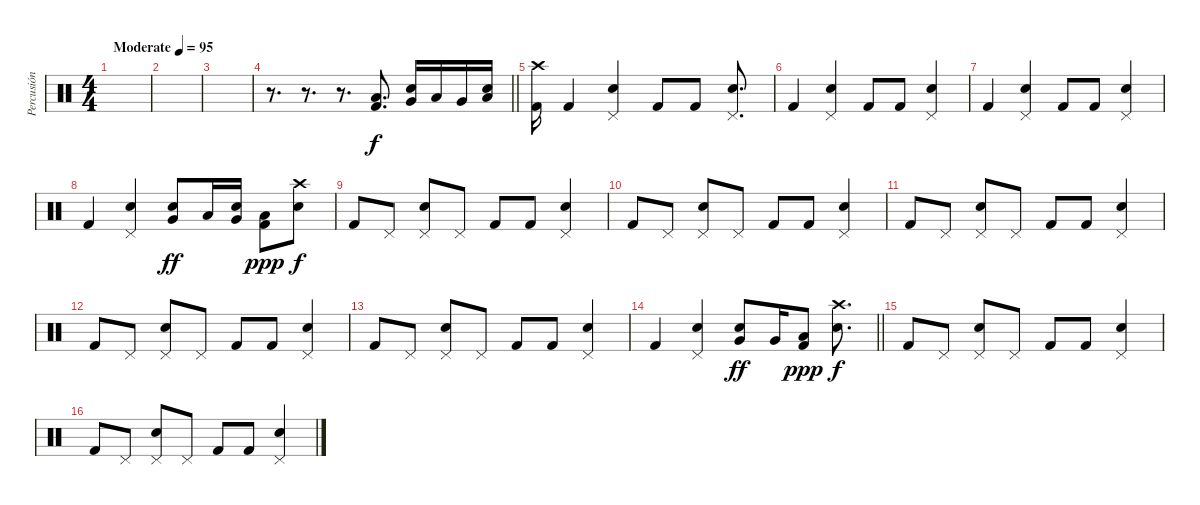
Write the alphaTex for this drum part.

\track ("Percusión" "Percusión") {instrument percussion}
\staff {score}
\articulation defaults
\ts (4 4)
\tempo (95 "Moderate")
\clef neutral
\ks c
|
|
|
\barLineRight lightlight
r.8{d} r.8{d} r.8{d} ("Low Floor Tom (hit)" "Kick (hit) 2").8{d} ("Very Low Tom (hit)" "Snare (hit) 2").16 "Low Tom (hit)".16 "Very Low Tom (hit)".16 ("Snare (hit) 2" "Low Floor Tom (hit)").16 |
\section ("" "")
("Crash high (hit)" "Kick (hit) 2").16{dy f} "Kick (hit) 2".4 ("Snare (hit) 2" "Pedal Hi-Hat (hit)").4 "Kick (hit) 2".8 "Kick (hit) 2".8 ("Snare (hit) 2" "Pedal Hi-Hat (hit)").8{d} |
"Kick (hit) 2".4 ("Snare (hit) 2" "Pedal Hi-Hat (hit)").4 "Kick (hit) 2".8 "Kick (hit) 2".8 ("Snare (hit) 2" "Pedal Hi-Hat (hit)").4 |
"Kick (hit) 2".4 ("Snare (hit) 2" "Pedal Hi-Hat (hit)").4 "Kick (hit) 2".8 "Kick (hit) 2".8 ("Snare (hit) 2" "Pedal Hi-Hat (hit)").4 |
"Kick (hit) 2".4 ("Snare (hit) 2" "Pedal Hi-Hat (hit)").4 ("Very Low Tom (hit)" "Snare (hit) 2").8{dy ff} "Low Tom (hit)".16 ("Very Low Tom (hit)" "Snare (hit) 2").16 ("Low Tom (hit)" "Kick (hit) 2").8{dy ppp} ("Crash high (hit)" "Snare (hit) 2").8{dy f} |
"Kick (hit) 2".8 "Pedal Hi-Hat (hit)".8 ("Snare (hit) 2" "Pedal Hi-Hat (hit)").8 "Pedal Hi-Hat (hit)".8 "Kick (hit) 2".8 "Kick (hit) 2".8 ("Snare (hit) 2" "Pedal Hi-Hat (hit)").4 |
"Kick (hit) 2".8 "Pedal Hi-Hat (hit)".8 ("Snare (hit) 2" "Pedal Hi-Hat (hit)").8 "Pedal Hi-Hat (hit)".8 "Kick (hit) 2".8 "Kick (hit) 2".8 ("Snare (hit) 2" "Pedal Hi-Hat (hit)").4 |
"Kick (hit) 2".8 "Pedal Hi-Hat (hit)".8 ("Snare (hit) 2" "Pedal Hi-Hat (hit)").8 "Pedal Hi-Hat (hit)".8 "Kick (hit) 2".8 "Kick (hit) 2".8 ("Snare (hit) 2" "Pedal Hi-Hat (hit)").4 |
"Kick (hit) 2".8 "Pedal Hi-Hat (hit)".8 ("Snare (hit) 2" "Pedal Hi-Hat (hit)").8 "Pedal Hi-Hat (hit)".8 "Kick (hit) 2".8 "Kick (hit) 2".8 ("Snare (hit) 2" "Pedal Hi-Hat (hit)").4 |
"Kick (hit) 2".8 "Pedal Hi-Hat (hit)".8 ("Snare (hit) 2" "Pedal Hi-Hat (hit)").8 "Pedal Hi-Hat (hit)".8 "Kick (hit) 2".8 "Kick (hit) 2".8 ("Snare (hit) 2" "Pedal Hi-Hat (hit)").4 |
\barLineRight lightlight "Kick (hit) 2".4
("Snare (hit) 2" "Pedal Hi-Hat (hit)").4 ("Very Low Tom (hit)" "Snare (hit) 2").8{dy ff} "Very Low Tom (hit)".16 ("Low Tom (hit)" "Kick (hit) 2").8{dy ppp} ("Crash high (hit)" "Snare (hit) 2").8{d dy f} |
\section ("" "")
"Kick (hit) 2".8 "Pedal Hi-Hat (hit)".8 ("Snare (hit) 2" "Pedal Hi-Hat (hit)").8 "Pedal Hi-Hat (hit)".8 "Kick (hit) 2".8 "Kick (hit) 2".8 ("Snare (hit) 2" "Pedal Hi-Hat (hit)").4 |
"Kick (hit) 2".8 "Pedal Hi-Hat (hit)".8 ("Snare (hit) 2" "Pedal Hi-Hat (hit)").8 "Pedal Hi-Hat (hit)".8 "Kick (hit) 2".8 "Kick (hit) 2".8 ("Snare (hit) 2" "Pedal Hi-Hat (hit)").4
